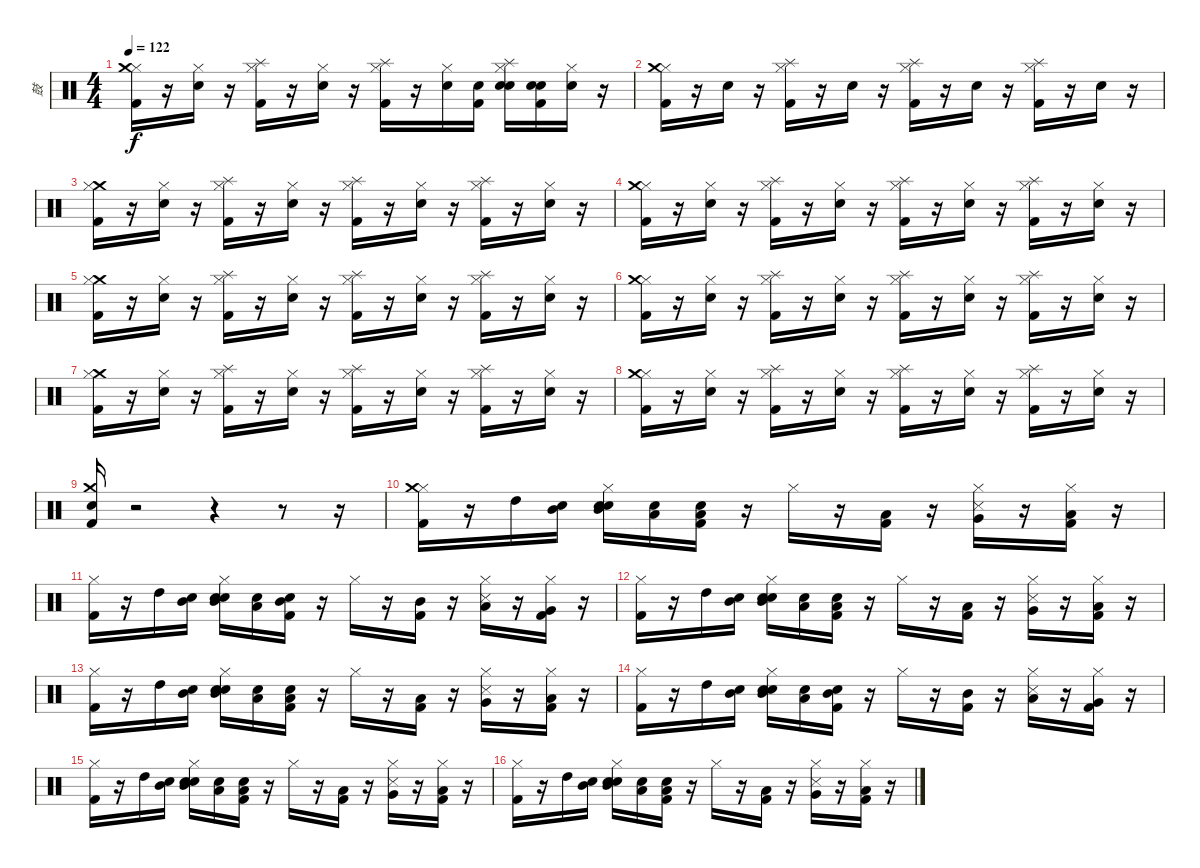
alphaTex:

\track ("鼓" "鼓") {instrument percussion}
\staff {score}
\articulation defaults
\ts (4 4)
\tempo 122
\clef neutral
\ks c
("Kick (hit) 2" "Hi-Hat (closed)" "Crash medium (hit)").16{dy f} r.16 ("Hi-Hat (closed)" "Snare (hit) 2").16 r.16 ("Splash (hit)" "Hi-Hat (closed)" "Kick (hit) 2").16 r.16 ("Snare (hit) 2" "Hi-Hat (closed)").16 r.16 ("Hi-Hat (closed)" "Kick (hit) 2" "Splash (hit)").16 r.16 ("Snare (hit) 2" "Hi-Hat (closed)").16 ("Snare (hit)" "Kick (hit) 2").16 ("Snare (hit)" "Splash (hit)" "Hi-Hat (closed)" "Snare (hit) 2").16 ("Snare (hit)" "Kick (hit) 2" "Snare (hit) 2").16 ("Snare (hit)" "Hi-Hat (closed)").16 r.16 |
("Kick (hit) 2" "Hi-Hat (closed)" "Crash medium (hit)").16 r.16 "Snare (hit) 2".16 r.16 ("Kick (hit) 2" "Hi-Hat (closed)" "Splash (hit)").16 r.16 "Snare (hit) 2".16 r.16 ("Kick (hit) 2" "Splash (hit)" "Hi-Hat (closed)").16 r.16 "Snare (hit) 2".16 r.16 ("Kick (hit) 2" "Hi-Hat (closed)" "Splash (hit)").16 r.16 "Snare (hit) 2".16 r.16 |
("Crash medium (hit)" "Kick (hit) 2" "Hi-Hat (closed)").16 r.16 ("Snare (hit) 2" "Hi-Hat (closed)").16 r.16 ("Kick (hit) 2" "Hi-Hat (closed)" "Splash (hit)").16 r.16 ("Snare (hit) 2" "Hi-Hat (closed)").16 r.16 ("Kick (hit) 2" "Hi-Hat (closed)" "Splash (hit)").16 r.16 ("Snare (hit) 2" "Hi-Hat (closed)").16 r.16 ("Kick (hit) 2" "Hi-Hat (closed)" "Splash (hit)").16 r.16 ("Snare (hit) 2" "Hi-Hat (closed)").16 r.16 |
("Kick (hit) 2" "Hi-Hat (closed)" "Crash medium (hit)").16 r.16 ("Snare (hit) 2" "Hi-Hat (closed)").16 r.16 ("Kick (hit) 2" "Hi-Hat (closed)" "Splash (hit)").16 r.16 ("Snare (hit) 2" "Hi-Hat (closed)").16 r.16 ("Kick (hit) 2" "Hi-Hat (closed)" "Splash (hit)").16 r.16 ("Snare (hit) 2" "Hi-Hat (closed)").16 r.16 ("Kick (hit) 2" "Splash (hit)" "Hi-Hat (closed)").16 r.16 ("Snare (hit) 2" "Hi-Hat (closed)").16 r.16 |
("Kick (hit) 2" "Crash medium (hit)" "Hi-Hat (closed)").16 r.16 ("Snare (hit) 2" "Hi-Hat (closed)").16 r.16 ("Kick (hit) 2" "Hi-Hat (closed)" "Splash (hit)").16 r.16 ("Snare (hit) 2" "Hi-Hat (closed)").16 r.16 ("Kick (hit) 2" "Hi-Hat (closed)" "Splash (hit)").16 r.16 ("Snare (hit) 2" "Hi-Hat (closed)").16 r.16 ("Kick (hit) 2" "Hi-Hat (closed)" "Splash (hit)").16 r.16 ("Hi-Hat (closed)" "Snare (hit) 2").16 r.16 |
("Kick (hit) 2" "Hi-Hat (closed)" "Crash medium (hit)").16 r.16 ("Snare (hit) 2" "Hi-Hat (closed)").16 r.16 ("Kick (hit) 2" "Hi-Hat (closed)" "Splash (hit)").16 r.16 ("Snare (hit) 2" "Hi-Hat (closed)").16 r.16 ("Kick (hit) 2" "Hi-Hat (closed)" "Splash (hit)").16 r.16 ("Snare (hit) 2" "Hi-Hat (closed)").16 r.16 ("Kick (hit) 2" "Splash (hit)" "Hi-Hat (closed)").16 r.16 ("Snare (hit) 2" "Hi-Hat (closed)").16 r.16 |
("Kick (hit) 2" "Crash medium (hit)" "Hi-Hat (closed)").16 r.16 ("Snare (hit) 2" "Hi-Hat (closed)").16 r.16 ("Kick (hit) 2" "Splash (hit)" "Hi-Hat (closed)").16 r.16 ("Snare (hit) 2" "Hi-Hat (closed)").16 r.16 ("Hi-Hat (closed)" "Kick (hit) 2" "Splash (hit)").16 r.16 ("Snare (hit) 2" "Hi-Hat (closed)").16 r.16 ("Splash (hit)" "Kick (hit) 2" "Hi-Hat (closed)").16 r.16 ("Snare (hit) 2" "Hi-Hat (closed)").16 r.16 |
("Kick (hit) 2" "Hi-Hat (closed)" "Crash medium (hit)").16 r.16 ("Snare (hit) 2" "Hi-Hat (closed)").16 r.16 ("Splash (hit)" "Kick (hit) 2" "Hi-Hat (closed)").16 r.16 ("Snare (hit) 2" "Hi-Hat (closed)").16 r.16 ("Kick (hit) 2" "Hi-Hat (closed)" "Splash (hit)").16 r.16 ("Snare (hit) 2" "Hi-Hat (closed)").16 r.16 ("Hi-Hat (closed)" "Splash (hit)" "Kick (hit) 2").16 r.16 ("Hi-Hat (closed)" "Snare (hit) 2").16 r.16 |
("Crash medium (hit)" "Snare (hit) 2" "Kick (hit) 2").16 r.2 r.4 r.8 r.16 |
("Kick (hit) 2" "Hi-Hat (closed)" "Crash medium (hit)").16 r.16 "High Tom (hit)".16 ("Snare (hit)" "Mid Tom (hit)").16 ("Snare (hit)" "Snare (hit) 2" "Mid Tom (hit)" "Hi-Hat (closed)").16 ("Snare (hit)" "Low Tom (hit)").16 ("Snare (hit)" "Low Tom (hit)" "Kick (hit) 2").16 r.16 "Hi-Hat (closed)".16 r.16 ("Kick (hit) 2" "Low Tom (hit)").16 r.16 ("Very Low Tom (hit)" "Hi-Hat (closed)" "Snare (side stick) 3").16 r.16 ("Kick (hit) 2" "Low Floor Tom (hit)" "Hi-Hat (closed)").16 r.16 |
("Kick (hit) 2" "Hi-Hat (closed)").16 r.16 "High Tom (hit)".16 ("Snare (hit)" "Mid Tom (hit)").16 ("Snare (hit)" "Snare (hit) 2" "Hi-Hat (closed)" "Mid Tom (hit)").16 ("Snare (hit)" "Low Tom (hit)").16 ("Snare (hit)" "Kick (hit) 2" "Mid Tom (hit)").16 r.16 "Hi-Hat (closed)".16 r.16 ("Kick (hit) 2" "Mid Tom (hit)").16 r.16 ("Hi-Hat (closed)" "Low Tom (hit)" "Snare (side stick) 3").16 r.16 ("Kick (hit) 2" "Very Low Tom (hit)" "Hi-Hat (closed)").16 r.16 |
("Hi-Hat (closed)" "Kick (hit) 2").16 r.16 "High Tom (hit)".16 ("Snare (hit)" "Mid Tom (hit)").16 ("Snare (hit)" "Snare (hit) 2" "Hi-Hat (closed)" "Mid Tom (hit)").16 ("Snare (hit)" "Low Tom (hit)").16 ("Snare (hit)" "Low Tom (hit)" "Kick (hit) 2").16 r.16 "Hi-Hat (closed)".16 r.16 ("Kick (hit) 2" "Low Tom (hit)").16 r.16 ("Hi-Hat (closed)" "Very Low Tom (hit)" "Snare (side stick) 3").16 r.16 ("Kick (hit) 2" "Low Floor Tom (hit)" "Hi-Hat (closed)").16 r.16 |
("Hi-Hat (closed)" "Kick (hit) 2").16 r.16 "High Tom (hit)".16 ("Snare (hit)" "Mid Tom (hit)").16 ("Snare (hit)" "Snare (hit) 2" "Hi-Hat (closed)" "Mid Tom (hit)").16 ("Snare (hit)" "Low Tom (hit)").16 ("Snare (hit)" "Low Tom (hit)" "Kick (hit) 2").16 r.16 "Hi-Hat (closed)".16 r.16 ("Kick (hit) 2" "Low Tom (hit)").16 r.16 ("Hi-Hat (closed)" "Very Low Tom (hit)" "Snare (side stick) 3").16 r.16 ("Kick (hit) 2" "Low Floor Tom (hit)" "Hi-Hat (closed)").16 r.16 |
("Kick (hit) 2" "Hi-Hat (closed)").16 r.16 "High Tom (hit)".16 ("Snare (hit)" "Mid Tom (hit)").16 ("Snare (hit)" "Snare (hit) 2" "Hi-Hat (closed)" "Mid Tom (hit)").16 ("Snare (hit)" "Low Tom (hit)").16 ("Snare (hit)" "Kick (hit) 2" "Mid Tom (hit)").16 r.16 "Hi-Hat (closed)".16 r.16 ("Kick (hit) 2" "Mid Tom (hit)").16 r.16 ("Hi-Hat (closed)" "Low Tom (hit)" "Snare (side stick) 3").16 r.16 ("Kick (hit) 2" "Very Low Tom (hit)" "Hi-Hat (closed)").16 r.16 |
("Hi-Hat (closed)" "Kick (hit) 2").16 r.16 "High Tom (hit)".16 ("Snare (hit)" "Mid Tom (hit)").16 ("Snare (hit)" "Snare (hit) 2" "Hi-Hat (closed)" "Mid Tom (hit)").16 ("Snare (hit)" "Low Tom (hit)").16 ("Snare (hit)" "Low Tom (hit)" "Kick (hit) 2").16 r.16 "Hi-Hat (closed)".16 r.16 ("Kick (hit) 2" "Low Tom (hit)").16 r.16 ("Hi-Hat (closed)" "Very Low Tom (hit)" "Snare (side stick) 3").16 r.16 ("Kick (hit) 2" "Low Floor Tom (hit)" "Hi-Hat (closed)").16 r.16 |
("Hi-Hat (closed)" "Kick (hit) 2").16 r.16 "High Tom (hit)".16 ("Snare (hit)" "Mid Tom (hit)").16 ("Snare (hit)" "Snare (hit) 2" "Hi-Hat (closed)" "Mid Tom (hit)").16 ("Snare (hit)" "Low Tom (hit)").16 ("Snare (hit)" "Low Tom (hit)" "Kick (hit) 2").16 r.16 "Hi-Hat (closed)".16 r.16 ("Kick (hit) 2" "Low Tom (hit)").16 r.16 ("Hi-Hat (closed)" "Very Low Tom (hit)" "Snare (side stick) 3").16 r.16 ("Kick (hit) 2" "Low Floor Tom (hit)" "Hi-Hat (closed)").16 r.16
